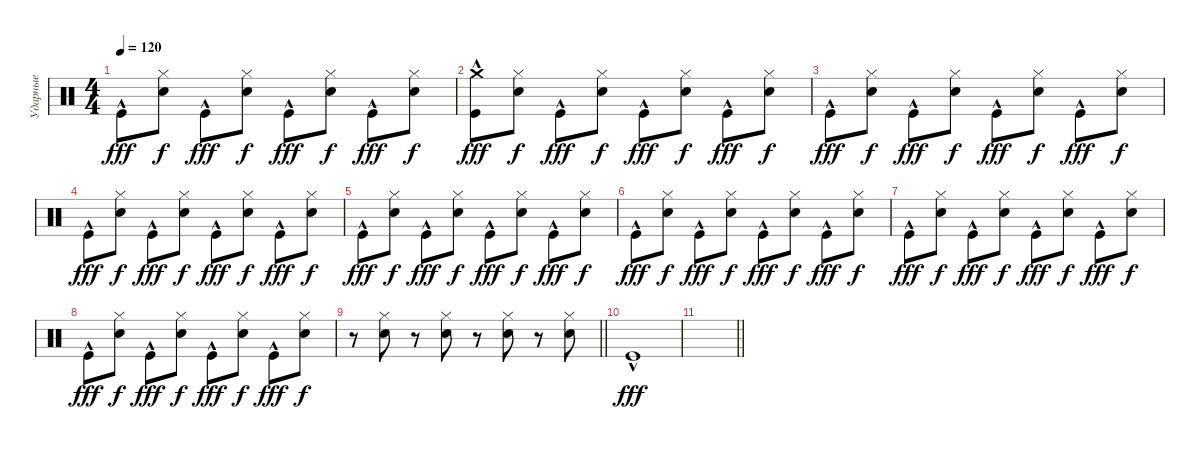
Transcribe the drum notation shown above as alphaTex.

\track ("Ударные" "Ударные") {instrument percussion}
\staff {score}
\articulation defaults
\ts (4 4)
\tempo 120
\clef neutral
\ks c "Kick (hit)"{hac}.8{dy fff}
("Hand Clap (hit)" "Hi-Hat (closed)").8{dy f} "Kick (hit)"{hac}.8{dy fff} ("Hand Clap (hit)" "Hi-Hat (closed)").8{dy f} "Kick (hit)"{hac}.8{dy fff} ("Hand Clap (hit)" "Hi-Hat (closed)").8{dy f} "Kick (hit)"{hac}.8{dy fff} ("Hand Clap (hit)" "Hi-Hat (closed)").8{dy f} |
("Kick (hit)"{hac} "Crash medium (hit)").8{dy fff} ("Hand Clap (hit)" "Hi-Hat (closed)").8{dy f} "Kick (hit)"{hac}.8{dy fff} ("Hand Clap (hit)" "Hi-Hat (closed)").8{dy f} "Kick (hit)"{hac}.8{dy fff} ("Hand Clap (hit)" "Hi-Hat (closed)").8{dy f} "Kick (hit)"{hac}.8{dy fff} ("Hand Clap (hit)" "Hi-Hat (closed)").8{dy f} |
"Kick (hit)"{hac}.8{dy fff} ("Hand Clap (hit)" "Hi-Hat (closed)").8{dy f} "Kick (hit)"{hac}.8{dy fff} ("Hand Clap (hit)" "Hi-Hat (closed)").8{dy f} "Kick (hit)"{hac}.8{dy fff} ("Hand Clap (hit)" "Hi-Hat (closed)").8{dy f} "Kick (hit)"{hac}.8{dy fff} ("Hand Clap (hit)" "Hi-Hat (closed)").8{dy f} |
"Kick (hit)"{hac}.8{dy fff} ("Hand Clap (hit)" "Hi-Hat (closed)").8{dy f} "Kick (hit)"{hac}.8{dy fff} ("Hand Clap (hit)" "Hi-Hat (closed)").8{dy f} "Kick (hit)"{hac}.8{dy fff} ("Hand Clap (hit)" "Hi-Hat (closed)").8{dy f} "Kick (hit)"{hac}.8{dy fff} ("Hand Clap (hit)" "Hi-Hat (closed)").8{dy f} |
"Kick (hit)"{hac}.8{dy fff} ("Hand Clap (hit)" "Hi-Hat (closed)").8{dy f} "Kick (hit)"{hac}.8{dy fff} ("Hand Clap (hit)" "Hi-Hat (closed)").8{dy f} "Kick (hit)"{hac}.8{dy fff} ("Hand Clap (hit)" "Hi-Hat (closed)").8{dy f} "Kick (hit)"{hac}.8{dy fff} ("Hand Clap (hit)" "Hi-Hat (closed)").8{dy f} |
"Kick (hit)"{hac}.8{dy fff} ("Hand Clap (hit)" "Hi-Hat (closed)").8{dy f} "Kick (hit)"{hac}.8{dy fff} ("Hand Clap (hit)" "Hi-Hat (closed)").8{dy f} "Kick (hit)"{hac}.8{dy fff} ("Hand Clap (hit)" "Hi-Hat (closed)").8{dy f} "Kick (hit)"{hac}.8{dy fff} ("Hand Clap (hit)" "Hi-Hat (closed)").8{dy f} |
"Kick (hit)"{hac}.8{dy fff} ("Hand Clap (hit)" "Hi-Hat (closed)").8{dy f} "Kick (hit)"{hac}.8{dy fff} ("Hand Clap (hit)" "Hi-Hat (closed)").8{dy f} "Kick (hit)"{hac}.8{dy fff} ("Hand Clap (hit)" "Hi-Hat (closed)").8{dy f} "Kick (hit)"{hac}.8{dy fff} ("Hand Clap (hit)" "Hi-Hat (closed)").8{dy f} |
"Kick (hit)"{hac}.8{dy fff} ("Hand Clap (hit)" "Hi-Hat (closed)").8{dy f} "Kick (hit)"{hac}.8{dy fff} ("Hand Clap (hit)" "Hi-Hat (closed)").8{dy f} "Kick (hit)"{hac}.8{dy fff} ("Hand Clap (hit)" "Hi-Hat (closed)").8{dy f} "Kick (hit)"{hac}.8{dy fff} ("Hand Clap (hit)" "Hi-Hat (closed)").8{dy f} |
\barLineRight lightlight
r.8 ("Hand Clap (hit)" "Hi-Hat (closed)").8 r.8 ("Hand Clap (hit)" "Hi-Hat (closed)").8 r.8 ("Hand Clap (hit)" "Hi-Hat (closed)").8 r.8 ("Hand Clap (hit)" "Hi-Hat (closed)").8 |
"Kick (hit)"{hac}.1{dy fff} |
\barLineRight lightlight
